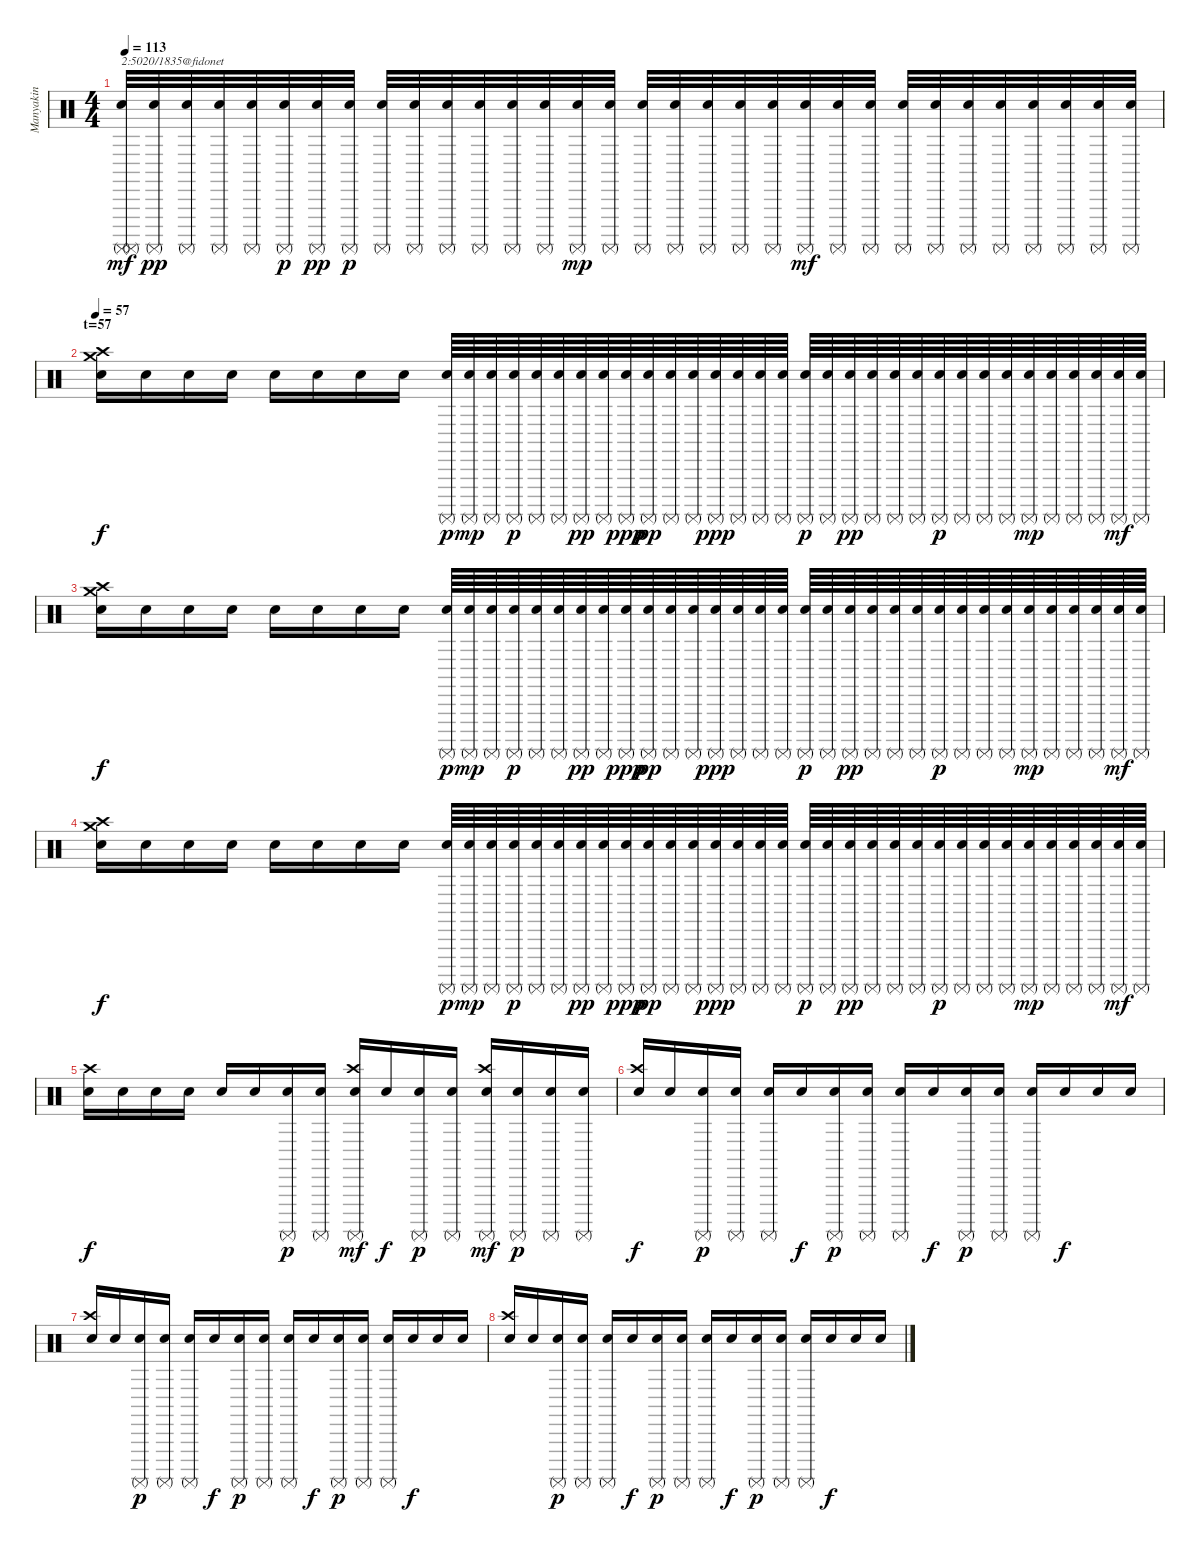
\track ("Manyakin" "Manyakin") {instrument percussion}
\staff {score}
\articulation defaults
\ts (4 4)
\tempo 113
\clef neutral
\ks c
("Surdo (mute)" "Surdo (mute)" "Snare (hit)"{x}).32{txt "2:5020/1835@fidonet" dy mf} ("Surdo (mute)" "Snare (hit)"{x}).32{dy pp} ("Surdo (mute)" "Snare (hit)"{x}).32 ("Surdo (mute)" "Snare (hit)"{x}).32 ("Surdo (mute)" "Snare (hit)"{x}).32 ("Surdo (mute)" "Snare (hit)"{x}).32{dy p} ("Surdo (mute)" "Snare (hit)"{x}).32{dy pp} ("Surdo (mute)" "Snare (hit)"{x}).32{dy p} ("Surdo (mute)" "Snare (hit)"{x}).32 ("Surdo (mute)" "Snare (hit)"{x}).32 ("Surdo (mute)" "Snare (hit)"{x}).32 ("Surdo (mute)" "Snare (hit)"{x}).32 ("Surdo (mute)" "Snare (hit)"{x}).32 ("Surdo (mute)" "Snare (hit)"{x}).32 ("Surdo (mute)" "Snare (hit)"{x}).32{dy mp} ("Surdo (mute)" "Snare (hit)"{x}).32 ("Surdo (mute)" "Snare (hit)"{x}).32 ("Surdo (mute)" "Snare (hit)"{x}).32 ("Surdo (mute)" "Snare (hit)"{x}).32 ("Surdo (mute)" "Snare (hit)"{x}).32 ("Surdo (mute)" "Snare (hit)"{x}).32 ("Surdo (mute)" "Snare (hit)"{x}).32{dy mf} ("Surdo (mute)" "Snare (hit)"{x}).32 ("Surdo (mute)" "Snare (hit)"{x}).32 ("Surdo (mute)" "Snare (hit)"{x}).32 ("Surdo (mute)" "Snare (hit)"{x}).32 ("Surdo (mute)" "Snare (hit)"{x}).32 ("Surdo (mute)" "Snare (hit)"{x}).32 ("Surdo (mute)" "Snare (hit)"{x}).32 ("Surdo (mute)" "Snare (hit)"{x}).32 ("Surdo (mute)" "Snare (hit)"{x}).32 ("Surdo (mute)" "Snare (hit)"{x}).32 |
\section ("" "t=57")
\tempo 57
("Crash high (hit)" "Crash medium (hit)" "Snare (hit)"{x}).16{dy f} "Snare (hit)"{x}.16 "Snare (hit)"{x}.16 "Snare (hit)"{x}.16 "Snare (hit)"{x}.16 "Snare (hit)"{x}.16 "Snare (hit)"{x}.16 "Snare (hit)"{x}.16 ("Surdo (mute)" "Snare (hit)"{x}).64{dy p} ("Surdo (mute)" "Snare (hit)"{x}).64{dy mp} ("Surdo (mute)" "Snare (hit)"{x}).64 ("Surdo (mute)" "Snare (hit)"{x}).64{dy p} ("Surdo (mute)" "Snare (hit)"{x}).64 ("Surdo (mute)" "Snare (hit)"{x}).64 ("Surdo (mute)" "Snare (hit)"{x}).64{dy pp} ("Surdo (mute)" "Snare (hit)"{x}).64 ("Surdo (mute)" "Snare (hit)"{x}).64{dy ppp} ("Surdo (mute)" "Snare (hit)"{x}).64{dy pp} ("Surdo (mute)" "Snare (hit)"{x}).64 ("Surdo (mute)" "Snare (hit)"{x}).64 ("Surdo (mute)" "Snare (hit)"{x}).64{dy ppp} ("Surdo (mute)" "Snare (hit)"{x}).64 ("Surdo (mute)" "Snare (hit)"{x}).64 ("Surdo (mute)" "Snare (hit)"{x}).64 ("Surdo (mute)" "Snare (hit)"{x}).64{dy p} ("Surdo (mute)" "Snare (hit)"{x}).64 ("Surdo (mute)" "Snare (hit)"{x}).64{dy pp} ("Surdo (mute)" "Snare (hit)"{x}).64 ("Surdo (mute)" "Snare (hit)"{x}).64 ("Surdo (mute)" "Snare (hit)"{x}).64 ("Surdo (mute)" "Snare (hit)"{x}).64{dy p} ("Surdo (mute)" "Snare (hit)"{x}).64 ("Surdo (mute)" "Snare (hit)"{x}).64 ("Surdo (mute)" "Snare (hit)"{x}).64 ("Surdo (mute)" "Snare (hit)"{x}).64{dy mp} ("Surdo (mute)" "Snare (hit)"{x}).64 ("Surdo (mute)" "Snare (hit)"{x}).64 ("Surdo (mute)" "Snare (hit)"{x}).64 ("Surdo (mute)" "Snare (hit)"{x}).64{dy mf} ("Surdo (mute)" "Snare (hit)"{x}).64 |
("Crash high (hit)" "Crash medium (hit)" "Snare (hit)"{x}).16{dy f} "Snare (hit)"{x}.16 "Snare (hit)"{x}.16 "Snare (hit)"{x}.16 "Snare (hit)"{x}.16 "Snare (hit)"{x}.16 "Snare (hit)"{x}.16 "Snare (hit)"{x}.16 ("Surdo (mute)" "Snare (hit)"{x}).64{dy p} ("Surdo (mute)" "Snare (hit)"{x}).64{dy mp} ("Surdo (mute)" "Snare (hit)"{x}).64 ("Surdo (mute)" "Snare (hit)"{x}).64{dy p} ("Surdo (mute)" "Snare (hit)"{x}).64 ("Surdo (mute)" "Snare (hit)"{x}).64 ("Surdo (mute)" "Snare (hit)"{x}).64{dy pp} ("Surdo (mute)" "Snare (hit)"{x}).64 ("Surdo (mute)" "Snare (hit)"{x}).64{dy ppp} ("Surdo (mute)" "Snare (hit)"{x}).64{dy pp} ("Surdo (mute)" "Snare (hit)"{x}).64 ("Surdo (mute)" "Snare (hit)"{x}).64 ("Surdo (mute)" "Snare (hit)"{x}).64{dy ppp} ("Surdo (mute)" "Snare (hit)"{x}).64 ("Surdo (mute)" "Snare (hit)"{x}).64 ("Surdo (mute)" "Snare (hit)"{x}).64 ("Surdo (mute)" "Snare (hit)"{x}).64{dy p} ("Surdo (mute)" "Snare (hit)"{x}).64 ("Surdo (mute)" "Snare (hit)"{x}).64{dy pp} ("Surdo (mute)" "Snare (hit)"{x}).64 ("Surdo (mute)" "Snare (hit)"{x}).64 ("Surdo (mute)" "Snare (hit)"{x}).64 ("Surdo (mute)" "Snare (hit)"{x}).64{dy p} ("Surdo (mute)" "Snare (hit)"{x}).64 ("Surdo (mute)" "Snare (hit)"{x}).64 ("Surdo (mute)" "Snare (hit)"{x}).64 ("Surdo (mute)" "Snare (hit)"{x}).64{dy mp} ("Surdo (mute)" "Snare (hit)"{x}).64 ("Surdo (mute)" "Snare (hit)"{x}).64 ("Surdo (mute)" "Snare (hit)"{x}).64 ("Surdo (mute)" "Snare (hit)"{x}).64{dy mf} ("Surdo (mute)" "Snare (hit)"{x}).64 |
("Crash high (hit)" "Crash medium (hit)" "Snare (hit)"{x}).16{dy f} "Snare (hit)"{x}.16 "Snare (hit)"{x}.16 "Snare (hit)"{x}.16 "Snare (hit)"{x}.16 "Snare (hit)"{x}.16 "Snare (hit)"{x}.16 "Snare (hit)"{x}.16 ("Surdo (mute)" "Snare (hit)"{x}).64{dy p} ("Surdo (mute)" "Snare (hit)"{x}).64{dy mp} ("Surdo (mute)" "Snare (hit)"{x}).64 ("Surdo (mute)" "Snare (hit)"{x}).64{dy p} ("Surdo (mute)" "Snare (hit)"{x}).64 ("Surdo (mute)" "Snare (hit)"{x}).64 ("Surdo (mute)" "Snare (hit)"{x}).64{dy pp} ("Surdo (mute)" "Snare (hit)"{x}).64 ("Surdo (mute)" "Snare (hit)"{x}).64{dy ppp} ("Surdo (mute)" "Snare (hit)"{x}).64{dy pp} ("Surdo (mute)" "Snare (hit)"{x}).64 ("Surdo (mute)" "Snare (hit)"{x}).64 ("Surdo (mute)" "Snare (hit)"{x}).64{dy ppp} ("Surdo (mute)" "Snare (hit)"{x}).64 ("Surdo (mute)" "Snare (hit)"{x}).64 ("Surdo (mute)" "Snare (hit)"{x}).64 ("Surdo (mute)" "Snare (hit)"{x}).64{dy p} ("Surdo (mute)" "Snare (hit)"{x}).64 ("Surdo (mute)" "Snare (hit)"{x}).64{dy pp} ("Surdo (mute)" "Snare (hit)"{x}).64 ("Surdo (mute)" "Snare (hit)"{x}).64 ("Surdo (mute)" "Snare (hit)"{x}).64 ("Surdo (mute)" "Snare (hit)"{x}).64{dy p} ("Surdo (mute)" "Snare (hit)"{x}).64 ("Surdo (mute)" "Snare (hit)"{x}).64 ("Surdo (mute)" "Snare (hit)"{x}).64 ("Surdo (mute)" "Snare (hit)"{x}).64{dy mp} ("Surdo (mute)" "Snare (hit)"{x}).64 ("Surdo (mute)" "Snare (hit)"{x}).64 ("Surdo (mute)" "Snare (hit)"{x}).64 ("Surdo (mute)" "Snare (hit)"{x}).64{dy mf} ("Surdo (mute)" "Snare (hit)"{x}).64 |
("Crash high (hit)" "Snare (hit)"{x}).16{dy f} "Snare (hit)"{x}.16 "Snare (hit)"{x}.16 "Snare (hit)"{x}.16 "Snare (hit)"{x}.16 "Snare (hit)"{x}.16 ("Surdo (mute)" "Snare (hit)"{x}).16{dy p} ("Surdo (mute)" "Snare (hit)"{x}).16 ("Surdo (mute)" "Crash high (hit)" "Snare (hit)"{x}).16{dy mf} "Snare (hit)"{x}.16{dy f} ("Surdo (mute)" "Snare (hit)"{x}).16{dy p} ("Surdo (mute)" "Snare (hit)"{x}).16 ("Surdo (mute)" "Crash high (hit)" "Snare (hit)"{x}).16{dy mf} ("Surdo (mute)" "Snare (hit)"{x}).16{dy p} ("Surdo (mute)" "Snare (hit)"{x}).16 ("Surdo (mute)" "Snare (hit)"{x}).16 |
("Crash high (hit)" "Snare (hit)"{x}).16{dy f} "Snare (hit)"{x}.16 ("Surdo (mute)" "Snare (hit)"{x}).16{dy p} ("Surdo (mute)" "Snare (hit)"{x}).16 ("Surdo (mute)" "Snare (hit)"{x}).16 "Snare (hit)"{x}.16{dy f} ("Surdo (mute)" "Snare (hit)"{x}).16{dy p} ("Surdo (mute)" "Snare (hit)"{x}).16 ("Surdo (mute)" "Snare (hit)"{x}).16 "Snare (hit)"{x}.16{dy f} ("Surdo (mute)" "Snare (hit)"{x}).16{dy p} ("Surdo (mute)" "Snare (hit)"{x}).16 ("Surdo (mute)" "Snare (hit)"{x}).16 "Snare (hit)"{x}.16{dy f} "Snare (hit)"{x}.16 "Snare (hit)"{x}.16 |
("Crash high (hit)" "Snare (hit)"{x}).16 "Snare (hit)"{x}.16 ("Surdo (mute)" "Snare (hit)"{x}).16{dy p} ("Surdo (mute)" "Snare (hit)"{x}).16 ("Surdo (mute)" "Snare (hit)"{x}).16 "Snare (hit)"{x}.16{dy f} ("Surdo (mute)" "Snare (hit)"{x}).16{dy p} ("Surdo (mute)" "Snare (hit)"{x}).16 ("Surdo (mute)" "Snare (hit)"{x}).16 "Snare (hit)"{x}.16{dy f} ("Surdo (mute)" "Snare (hit)"{x}).16{dy p} ("Surdo (mute)" "Snare (hit)"{x}).16 ("Surdo (mute)" "Snare (hit)"{x}).16 "Snare (hit)"{x}.16{dy f} "Snare (hit)"{x}.16 "Snare (hit)"{x}.16 |
("Crash high (hit)" "Snare (hit)"{x}).16 "Snare (hit)"{x}.16 ("Surdo (mute)" "Snare (hit)"{x}).16{dy p} ("Surdo (mute)" "Snare (hit)"{x}).16 ("Surdo (mute)" "Snare (hit)"{x}).16 "Snare (hit)"{x}.16{dy f} ("Surdo (mute)" "Snare (hit)"{x}).16{dy p} ("Surdo (mute)" "Snare (hit)"{x}).16 ("Surdo (mute)" "Snare (hit)"{x}).16 "Snare (hit)"{x}.16{dy f} ("Surdo (mute)" "Snare (hit)"{x}).16{dy p} ("Surdo (mute)" "Snare (hit)"{x}).16 ("Surdo (mute)" "Snare (hit)"{x}).16 "Snare (hit)"{x}.16{dy f} "Snare (hit)"{x}.16 "Snare (hit)"{x}.16
